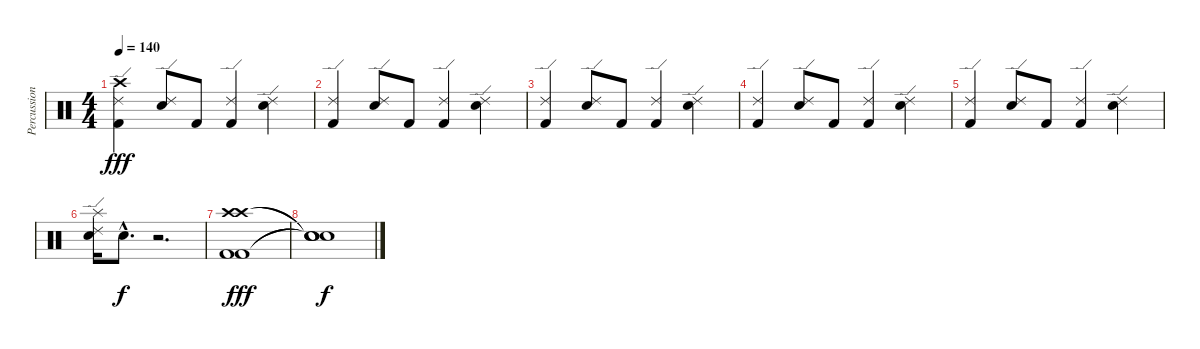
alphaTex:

\track ("Percussion" "Percussion") {instrument percussion}
\staff {score}
\articulation defaults
\ts (4 4)
\tempo 140
\clef neutral
\ks c
("Crash high (hit)" "Ride (edge) 2" "Kick (hit) 2").4{dy fff} ("Ride (edge) 2" "Electric Snare (hit)").8 "Kick (hit) 2".8 ("Ride (edge) 2" "Kick (hit) 2").4 ("Ride (edge) 2" "Electric Snare (hit)").4 |
("Ride (edge) 2" "Kick (hit) 2").4 ("Ride (edge) 2" "Electric Snare (hit)").8 "Kick (hit) 2".8 ("Ride (edge) 2" "Kick (hit) 2").4 ("Ride (edge) 2" "Electric Snare (hit)").4 |
("Ride (edge) 2" "Kick (hit) 2").4 ("Ride (edge) 2" "Electric Snare (hit)").8 "Kick (hit) 2".8 ("Ride (edge) 2" "Kick (hit) 2").4 ("Ride (edge) 2" "Electric Snare (hit)").4 |
("Ride (edge) 2" "Kick (hit) 2").4 ("Ride (edge) 2" "Electric Snare (hit)").8 "Kick (hit) 2".8 ("Ride (edge) 2" "Kick (hit) 2").4 ("Ride (edge) 2" "Electric Snare (hit)").4 |
("Ride (edge) 2" "Kick (hit) 2").4 ("Ride (edge) 2" "Electric Snare (hit)").8 "Kick (hit) 2".8 ("Ride (edge) 2" "Kick (hit) 2").4 ("Ride (edge) 2" "Electric Snare (hit)").4 |
("Ride (edge) 2" "Electric Snare (hit)" "Splash (hit)").16 "Electric Snare (hit)"{hac}.8{d dy f} r.2{d} |
("Crash high (hit)" "Crash high (hit)" "Kick (hit) 2" "Kick (hit) 2").1{dy fff} |
("Snare (hit)"{t} "Snare (hit)"{t} "Snare (hit)"{t} "Snare (hit)"{t}).1{dy f}
